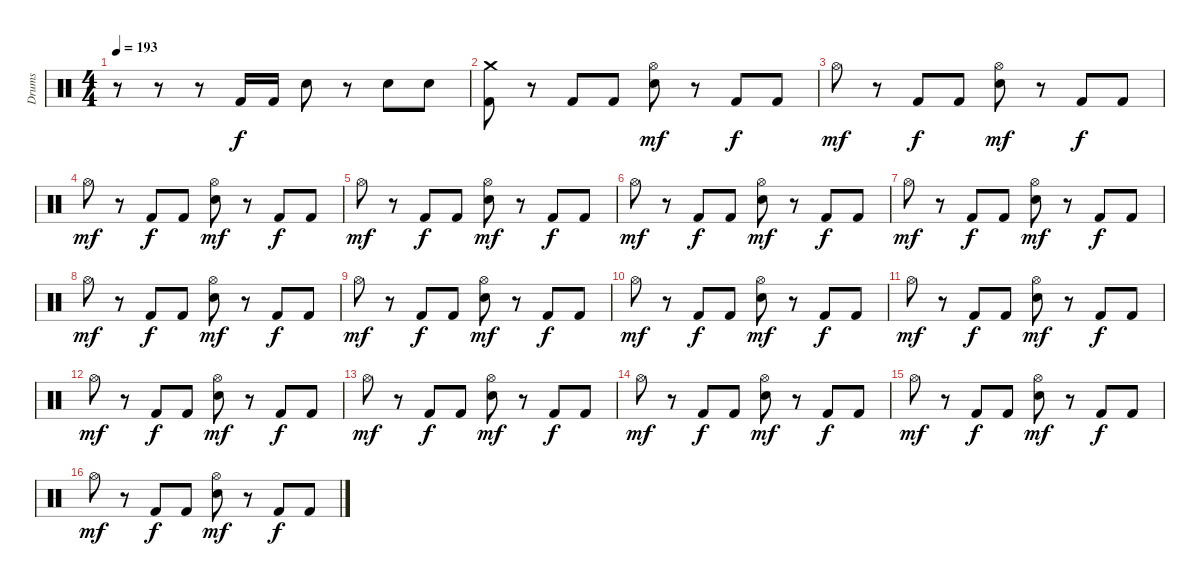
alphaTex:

\track ("Drums" "Drums") {instrument percussion}
\staff {score}
\articulation defaults
\ts (4 4)
\tempo 193
\clef neutral
\ks c
r.8{dy f} r.8 r.8 "Kick (hit) 2".16 "Kick (hit) 2".16 "Snare (hit) 2".8 r.8 "Snare (hit) 2".8 "Snare (hit) 2".8 |
("Crash medium (hit)" "Kick (hit) 2").8 r.8 "Kick (hit) 2".8 "Kick (hit) 2".8 ("Hi-Hat (open)" "Snare (hit) 2").8{dy mf} r.8 "Kick (hit) 2".8{dy f} "Kick (hit) 2".8 |
"Hi-Hat (open)".8{dy mf} r.8 "Kick (hit) 2".8{dy f} "Kick (hit) 2".8 ("Hi-Hat (open)" "Snare (hit) 2").8{dy mf} r.8 "Kick (hit) 2".8{dy f} "Kick (hit) 2".8 |
"Hi-Hat (open)".8{dy mf} r.8 "Kick (hit) 2".8{dy f} "Kick (hit) 2".8 ("Hi-Hat (open)" "Snare (hit) 2").8{dy mf} r.8 "Kick (hit) 2".8{dy f} "Kick (hit) 2".8 |
"Hi-Hat (open)".8{dy mf} r.8 "Kick (hit) 2".8{dy f} "Kick (hit) 2".8 ("Hi-Hat (open)" "Snare (hit) 2").8{dy mf} r.8 "Kick (hit) 2".8{dy f} "Kick (hit) 2".8 |
"Hi-Hat (open)".8{dy mf} r.8 "Kick (hit) 2".8{dy f} "Kick (hit) 2".8 ("Hi-Hat (open)" "Snare (hit) 2").8{dy mf} r.8 "Kick (hit) 2".8{dy f} "Kick (hit) 2".8 |
"Hi-Hat (open)".8{dy mf} r.8 "Kick (hit) 2".8{dy f} "Kick (hit) 2".8 ("Hi-Hat (open)" "Snare (hit) 2").8{dy mf} r.8 "Kick (hit) 2".8{dy f} "Kick (hit) 2".8 |
"Hi-Hat (open)".8{dy mf} r.8 "Kick (hit) 2".8{dy f} "Kick (hit) 2".8 ("Hi-Hat (open)" "Snare (hit) 2").8{dy mf} r.8 "Kick (hit) 2".8{dy f} "Kick (hit) 2".8 |
"Hi-Hat (open)".8{dy mf} r.8 "Kick (hit) 2".8{dy f} "Kick (hit) 2".8 ("Hi-Hat (open)" "Snare (hit) 2").8{dy mf} r.8 "Kick (hit) 2".8{dy f} "Kick (hit) 2".8 |
"Hi-Hat (open)".8{dy mf} r.8 "Kick (hit) 2".8{dy f} "Kick (hit) 2".8 ("Hi-Hat (open)" "Snare (hit) 2").8{dy mf} r.8 "Kick (hit) 2".8{dy f} "Kick (hit) 2".8 |
"Hi-Hat (open)".8{dy mf} r.8 "Kick (hit) 2".8{dy f} "Kick (hit) 2".8 ("Hi-Hat (open)" "Snare (hit) 2").8{dy mf} r.8 "Kick (hit) 2".8{dy f} "Kick (hit) 2".8 |
"Hi-Hat (open)".8{dy mf} r.8 "Kick (hit) 2".8{dy f} "Kick (hit) 2".8 ("Hi-Hat (open)" "Snare (hit) 2").8{dy mf} r.8 "Kick (hit) 2".8{dy f} "Kick (hit) 2".8 |
"Hi-Hat (open)".8{dy mf} r.8 "Kick (hit) 2".8{dy f} "Kick (hit) 2".8 ("Hi-Hat (open)" "Snare (hit) 2").8{dy mf} r.8 "Kick (hit) 2".8{dy f} "Kick (hit) 2".8 |
"Hi-Hat (open)".8{dy mf} r.8 "Kick (hit) 2".8{dy f} "Kick (hit) 2".8 ("Hi-Hat (open)" "Snare (hit) 2").8{dy mf} r.8 "Kick (hit) 2".8{dy f} "Kick (hit) 2".8 |
"Hi-Hat (open)".8{dy mf} r.8 "Kick (hit) 2".8{dy f} "Kick (hit) 2".8 ("Hi-Hat (open)" "Snare (hit) 2").8{dy mf} r.8 "Kick (hit) 2".8{dy f} "Kick (hit) 2".8 |
"Hi-Hat (open)".8{dy mf} r.8 "Kick (hit) 2".8{dy f} "Kick (hit) 2".8 ("Hi-Hat (open)" "Snare (hit) 2").8{dy mf} r.8 "Kick (hit) 2".8{dy f} "Kick (hit) 2".8
